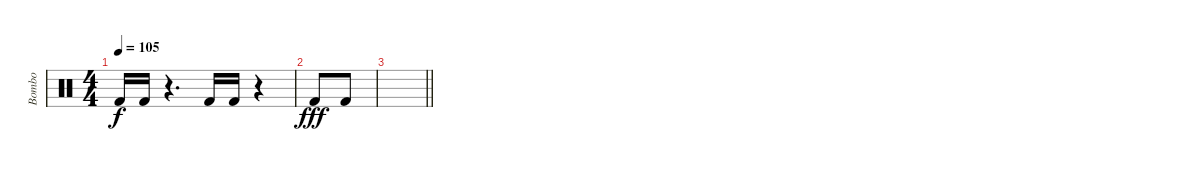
\track ("Bombo" "Bombo") {instrument percussion}
\staff {score}
\articulation defaults
\ts (4 4)
\tempo 105
\clef neutral
\ks c "Kick (hit) 2".16{dy f} "Kick (hit) 2".16
r.4{d} "Kick (hit) 2".16 "Kick (hit) 2".16 r.4 |
"Kick (hit) 2".8{dy fff} "Kick (hit) 2".8 |
\barLineRight lightlight
